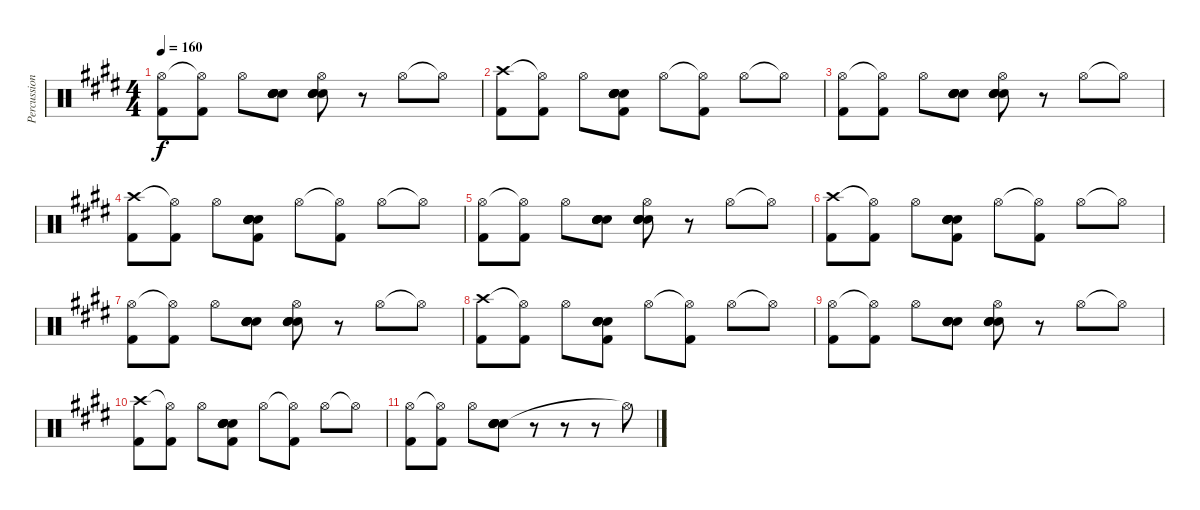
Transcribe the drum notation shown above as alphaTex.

\track ("Percussion" "Percussion") {instrument percussion}
\staff {score}
\articulation defaults
\ts (4 4)
\tempo 160
\clef neutral
\ks c#minor
("Hi-Hat (open)" "Kick (hit) 2").8{dy f} ("Hi-Hat (open)"{t} "Kick (hit) 2").8 "Hi-Hat (open)".8 ("Electric Snare (hit)" "Electric Snare (hit)" "Electric Snare (hit)" "Electric Snare (hit)" "Electric Snare (hit)").8 ("Electric Snare (hit)" "Electric Snare (hit)" "Hi-Hat (open)" "Electric Snare (hit)" "Electric Snare (hit)").8 r.8 "Hi-Hat (open)".8 "Hi-Hat (open)"{t}.8 |
("Crash high (hit)" "Kick (hit) 2").8 ("Hi-Hat (open)"{t} "Kick (hit) 2").8 "Hi-Hat (open)".8 ("Electric Snare (hit)" "Electric Snare (hit)" "Electric Snare (hit)" "Electric Snare (hit)" "Electric Snare (hit)" "Kick (hit) 2").8 "Hi-Hat (open)".8 ("Hi-Hat (open)"{t} "Kick (hit) 2").8 "Hi-Hat (open)".8 "Hi-Hat (open)"{t}.8 |
("Hi-Hat (open)" "Kick (hit) 2").8 ("Hi-Hat (open)"{t} "Kick (hit) 2").8 "Hi-Hat (open)".8 ("Electric Snare (hit)" "Electric Snare (hit)" "Electric Snare (hit)" "Electric Snare (hit)" "Electric Snare (hit)").8 ("Electric Snare (hit)" "Electric Snare (hit)" "Hi-Hat (open)" "Electric Snare (hit)" "Electric Snare (hit)").8 r.8 "Hi-Hat (open)".8 "Hi-Hat (open)"{t}.8 |
("Crash high (hit)" "Kick (hit) 2").8 ("Hi-Hat (open)"{t} "Kick (hit) 2").8 "Hi-Hat (open)".8 ("Electric Snare (hit)" "Electric Snare (hit)" "Electric Snare (hit)" "Electric Snare (hit)" "Electric Snare (hit)" "Kick (hit) 2").8 "Hi-Hat (open)".8 ("Hi-Hat (open)"{t} "Kick (hit) 2").8 "Hi-Hat (open)".8 "Hi-Hat (open)"{t}.8 |
("Hi-Hat (open)" "Kick (hit) 2").8 ("Hi-Hat (open)"{t} "Kick (hit) 2").8 "Hi-Hat (open)".8 ("Electric Snare (hit)" "Electric Snare (hit)" "Electric Snare (hit)" "Electric Snare (hit)" "Electric Snare (hit)").8 ("Electric Snare (hit)" "Electric Snare (hit)" "Hi-Hat (open)" "Electric Snare (hit)" "Electric Snare (hit)").8 r.8 "Hi-Hat (open)".8 "Hi-Hat (open)"{t}.8 |
("Crash high (hit)" "Kick (hit) 2").8 ("Hi-Hat (open)"{t} "Kick (hit) 2").8 "Hi-Hat (open)".8 ("Electric Snare (hit)" "Electric Snare (hit)" "Electric Snare (hit)" "Electric Snare (hit)" "Electric Snare (hit)" "Kick (hit) 2").8 "Hi-Hat (open)".8 ("Hi-Hat (open)"{t} "Kick (hit) 2").8 "Hi-Hat (open)".8 "Hi-Hat (open)"{t}.8 |
("Hi-Hat (open)" "Kick (hit) 2").8 ("Hi-Hat (open)"{t} "Kick (hit) 2").8 "Hi-Hat (open)".8 ("Electric Snare (hit)" "Electric Snare (hit)" "Electric Snare (hit)" "Electric Snare (hit)" "Electric Snare (hit)").8 ("Electric Snare (hit)" "Electric Snare (hit)" "Hi-Hat (open)" "Electric Snare (hit)" "Electric Snare (hit)").8 r.8 "Hi-Hat (open)".8 "Hi-Hat (open)"{t}.8 |
("Crash high (hit)" "Kick (hit) 2").8 ("Hi-Hat (open)"{t} "Kick (hit) 2").8 "Hi-Hat (open)".8 ("Electric Snare (hit)" "Electric Snare (hit)" "Electric Snare (hit)" "Electric Snare (hit)" "Electric Snare (hit)" "Kick (hit) 2").8 "Hi-Hat (open)".8 ("Hi-Hat (open)"{t} "Kick (hit) 2").8 "Hi-Hat (open)".8 "Hi-Hat (open)"{t}.8 |
("Hi-Hat (open)" "Kick (hit) 2").8 ("Hi-Hat (open)"{t} "Kick (hit) 2").8 "Hi-Hat (open)".8 ("Electric Snare (hit)" "Electric Snare (hit)" "Electric Snare (hit)" "Electric Snare (hit)" "Electric Snare (hit)").8 ("Electric Snare (hit)" "Electric Snare (hit)" "Hi-Hat (open)" "Electric Snare (hit)" "Electric Snare (hit)").8 r.8 "Hi-Hat (open)".8 "Hi-Hat (open)"{t}.8 |
("Crash high (hit)" "Kick (hit) 2").8 ("Hi-Hat (open)"{t} "Kick (hit) 2").8 "Hi-Hat (open)".8 ("Electric Snare (hit)" "Electric Snare (hit)" "Electric Snare (hit)" "Electric Snare (hit)" "Electric Snare (hit)" "Kick (hit) 2").8 "Hi-Hat (open)".8 ("Hi-Hat (open)"{t} "Kick (hit) 2").8 "Hi-Hat (open)".8 "Hi-Hat (open)"{t}.8 |
("Hi-Hat (open)" "Kick (hit) 2").8 ("Hi-Hat (open)"{t} "Kick (hit) 2").8 "Hi-Hat (open)".8 ("Electric Snare (hit)" "Electric Snare (hit)" "Electric Snare (hit)" "Electric Snare (hit)" "Electric Snare (hit)").8 r.8 r.8 r.8 "Hi-Hat (open)"{t}.8
